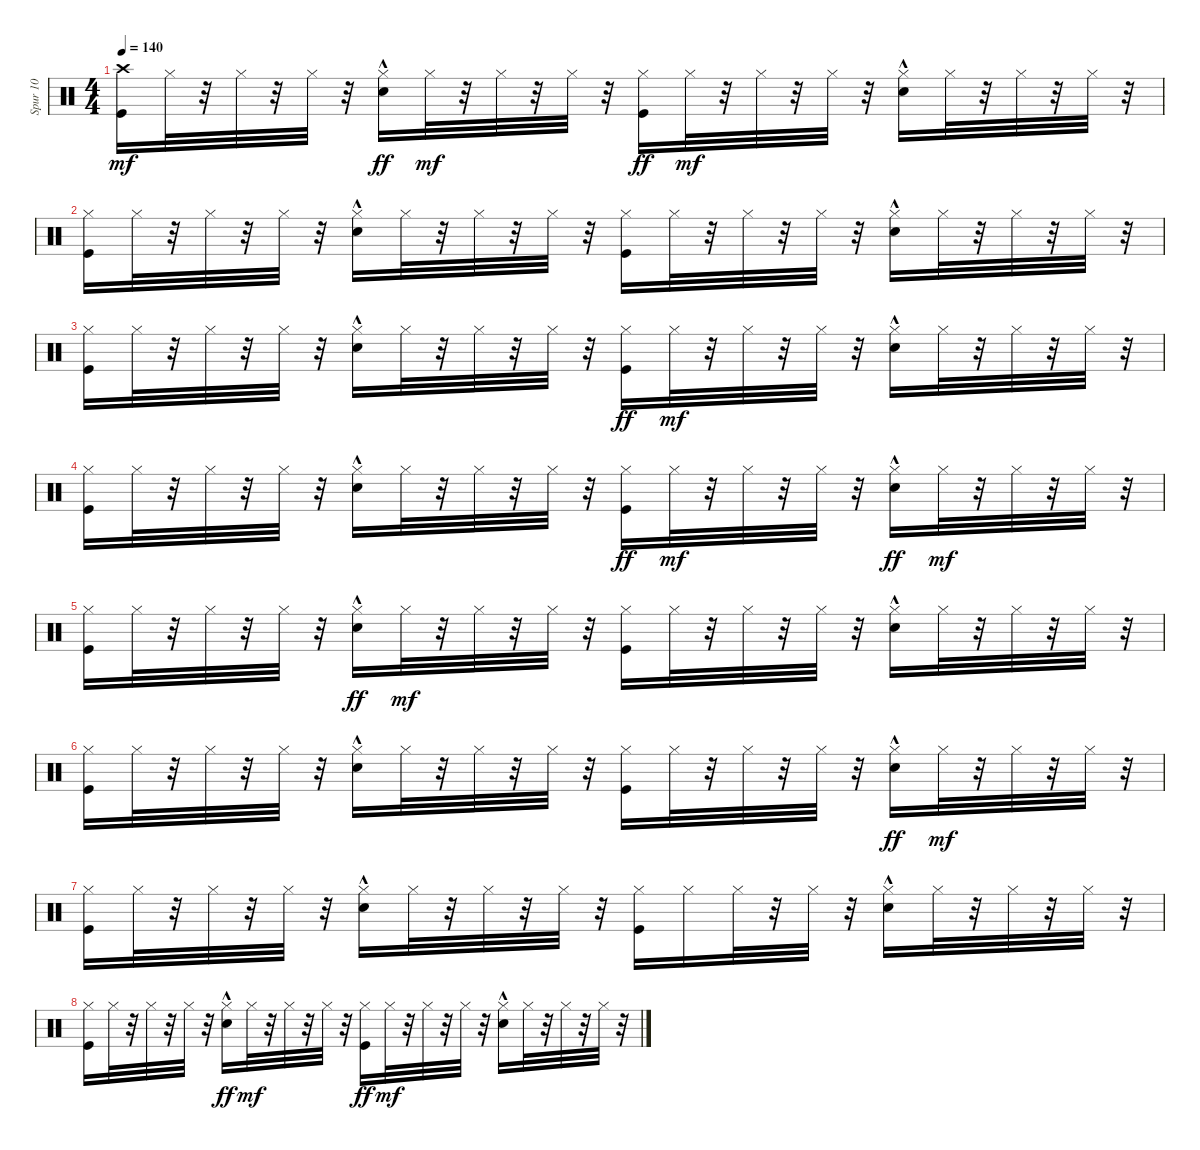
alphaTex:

\track ("Spur 10" "Spur 10") {instrument percussion}
\staff {score}
\articulation defaults
\ts (4 4)
\tempo 140
\clef neutral
\ks c
("Kick (hit)" "Crash high (hit)").16{dy mf} "Hi-Hat (closed)".32 r.32 "Hi-Hat (closed)".32 r.32 "Hi-Hat (closed)".32 r.32 ("Hi-Hat (closed)" "Snare (hit) 2"{hac}).16{dy ff} "Hi-Hat (closed)".32{dy mf} r.32 "Hi-Hat (closed)".32 r.32 "Hi-Hat (closed)".32 r.32 ("Hi-Hat (closed)" "Kick (hit)").16{dy ff} "Hi-Hat (closed)".32{dy mf} r.32 "Hi-Hat (closed)".32 r.32 "Hi-Hat (closed)".32 r.32 ("Snare (hit) 2"{hac} "Hi-Hat (closed)").16 "Hi-Hat (closed)".32 r.32 "Hi-Hat (closed)".32 r.32 "Hi-Hat (closed)".32 r.32 |
("Kick (hit)" "Hi-Hat (closed)").16 "Hi-Hat (closed)".32 r.32 "Hi-Hat (closed)".32 r.32 "Hi-Hat (closed)".32 r.32 ("Snare (hit) 2"{hac} "Hi-Hat (closed)").16 "Hi-Hat (closed)".32 r.32 "Hi-Hat (closed)".32 r.32 "Hi-Hat (closed)".32 r.32 ("Kick (hit)" "Hi-Hat (closed)").16 "Hi-Hat (closed)".32 r.32 "Hi-Hat (closed)".32 r.32 "Hi-Hat (closed)".32 r.32 ("Snare (hit) 2"{hac} "Hi-Hat (closed)").16 "Hi-Hat (closed)".32 r.32 "Hi-Hat (closed)".32 r.32 "Hi-Hat (closed)".32 r.32 |
("Kick (hit)" "Hi-Hat (closed)").16 "Hi-Hat (closed)".32 r.32 "Hi-Hat (closed)".32 r.32 "Hi-Hat (closed)".32 r.32 ("Snare (hit) 2"{hac} "Hi-Hat (closed)").16 "Hi-Hat (closed)".32 r.32 "Hi-Hat (closed)".32 r.32 "Hi-Hat (closed)".32 r.32 ("Hi-Hat (closed)" "Kick (hit)").16{dy ff} "Hi-Hat (closed)".32{dy mf} r.32 "Hi-Hat (closed)".32 r.32 "Hi-Hat (closed)".32 r.32 ("Snare (hit) 2"{hac} "Hi-Hat (closed)").16 "Hi-Hat (closed)".32 r.32 "Hi-Hat (closed)".32 r.32 "Hi-Hat (closed)".32 r.32 |
("Kick (hit)" "Hi-Hat (closed)").16 "Hi-Hat (closed)".32 r.32 "Hi-Hat (closed)".32 r.32 "Hi-Hat (closed)".32 r.32 ("Snare (hit) 2"{hac} "Hi-Hat (closed)").16 "Hi-Hat (closed)".32 r.32 "Hi-Hat (closed)".32 r.32 "Hi-Hat (closed)".32 r.32 ("Hi-Hat (closed)" "Kick (hit)").16{dy ff} "Hi-Hat (closed)".32{dy mf} r.32 "Hi-Hat (closed)".32 r.32 "Hi-Hat (closed)".32 r.32 ("Hi-Hat (closed)" "Snare (hit) 2"{hac}).16{dy ff} "Hi-Hat (closed)".32{dy mf} r.32 "Hi-Hat (closed)".32 r.32 "Hi-Hat (closed)".32 r.32 |
("Kick (hit)" "Hi-Hat (closed)").16 "Hi-Hat (closed)".32 r.32 "Hi-Hat (closed)".32 r.32 "Hi-Hat (closed)".32 r.32 ("Hi-Hat (closed)" "Snare (hit) 2"{hac}).16{dy ff} "Hi-Hat (closed)".32{dy mf} r.32 "Hi-Hat (closed)".32 r.32 "Hi-Hat (closed)".32 r.32 ("Kick (hit)" "Hi-Hat (closed)").16 "Hi-Hat (closed)".32 r.32 "Hi-Hat (closed)".32 r.32 "Hi-Hat (closed)".32 r.32 ("Snare (hit) 2"{hac} "Hi-Hat (closed)").16 "Hi-Hat (closed)".32 r.32 "Hi-Hat (closed)".32 r.32 "Hi-Hat (closed)".32 r.32 |
("Kick (hit)" "Hi-Hat (closed)").16 "Hi-Hat (closed)".32 r.32 "Hi-Hat (closed)".32 r.32 "Hi-Hat (closed)".32 r.32 ("Snare (hit) 2"{hac} "Hi-Hat (closed)").16 "Hi-Hat (closed)".32 r.32 "Hi-Hat (closed)".32 r.32 "Hi-Hat (closed)".32 r.32 ("Kick (hit)" "Hi-Hat (closed)").16 "Hi-Hat (closed)".32 r.32 "Hi-Hat (closed)".32 r.32 "Hi-Hat (closed)".32 r.32 ("Hi-Hat (closed)" "Snare (hit) 2"{hac}).16{dy ff} "Hi-Hat (closed)".32{dy mf} r.32 "Hi-Hat (closed)".32 r.32 "Hi-Hat (closed)".32 r.32 |
("Kick (hit)" "Hi-Hat (closed)").16 "Hi-Hat (closed)".32 r.32 "Hi-Hat (closed)".32 r.32 "Hi-Hat (closed)".32 r.32 ("Snare (hit) 2"{hac} "Hi-Hat (closed)").16 "Hi-Hat (closed)".32 r.32 "Hi-Hat (closed)".32 r.32 "Hi-Hat (closed)".32 r.32 ("Kick (hit)" "Hi-Hat (closed)").16 "Hi-Hat (closed)".16 "Hi-Hat (closed)".32 r.32 "Hi-Hat (closed)".32 r.32 ("Snare (hit) 2"{hac} "Hi-Hat (closed)").16 "Hi-Hat (closed)".32 r.32 "Hi-Hat (closed)".32 r.32 "Hi-Hat (closed)".32 r.32 |
("Kick (hit)" "Hi-Hat (closed)").16 "Hi-Hat (closed)".32 r.32 "Hi-Hat (closed)".32 r.32 "Hi-Hat (closed)".32 r.32 ("Hi-Hat (closed)" "Snare (hit) 2"{hac}).16{dy ff} "Hi-Hat (closed)".32{dy mf} r.32 "Hi-Hat (closed)".32 r.32 "Hi-Hat (closed)".32 r.32 ("Hi-Hat (closed)" "Kick (hit)").16{dy ff} "Hi-Hat (closed)".32{dy mf} r.32 "Hi-Hat (closed)".32 r.32 "Hi-Hat (closed)".32 r.32 ("Snare (hit) 2"{hac} "Hi-Hat (closed)").16 "Hi-Hat (closed)".32 r.32 "Hi-Hat (closed)".32 r.32 "Hi-Hat (closed)".32 r.32
